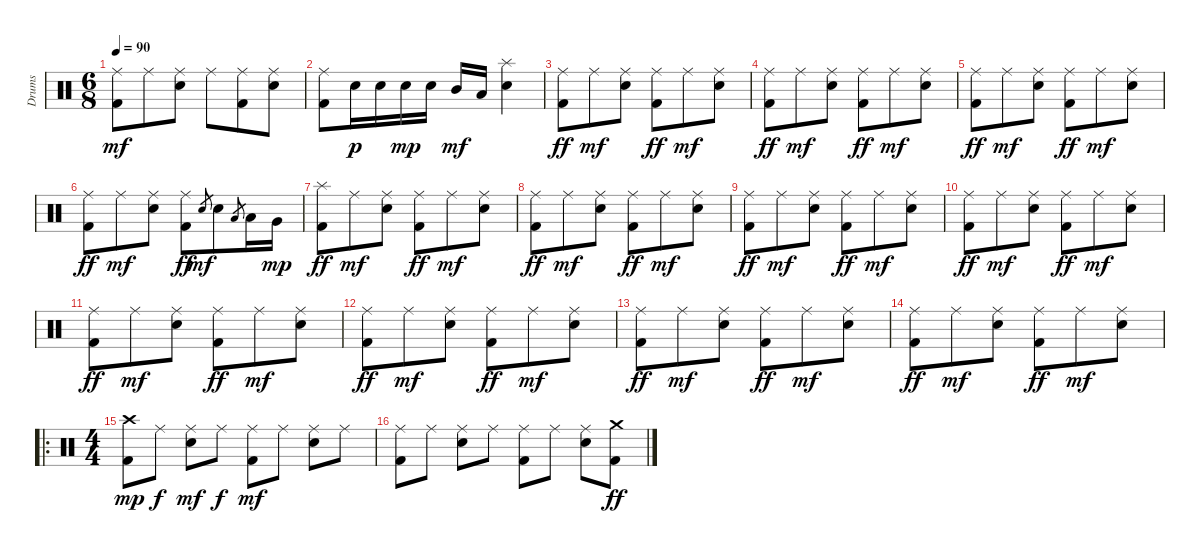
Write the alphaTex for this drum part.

\track ("Drums" "Drums") {instrument percussion}
\staff {score}
\articulation defaults
\ts (6 8)
\tempo 90
\clef neutral
\ks c
("Ride (middle)" "Kick (hit) 2").8{dy mf} "Ride (middle)".8 ("Ride (middle)" "Electric Snare (hit)").8 "Ride (middle)".8 ("Ride (middle)" "Kick (hit) 2").8 ("Ride (middle)" "Electric Snare (hit)").8 |
("Ride (middle)" "Kick (hit) 2").8 "Electric Snare (hit)".16{dy p} "Electric Snare (hit)".16 "Electric Snare (hit)".16{dy mp} "Electric Snare (hit)".16 "Mid Tom (hit)".16{dy mf} "Low Tom (hit)".16 ("Splash (hit)" "Electric Snare (hit)").4 |
("Ride (middle)" "Kick (hit) 2").8{dy ff} "Ride (middle)".8{dy mf} ("Ride (middle)" "Electric Snare (hit)").8 ("Ride (middle)" "Kick (hit) 2").8{dy ff} "Ride (middle)".8{dy mf} ("Ride (middle)" "Electric Snare (hit)").8 |
("Ride (middle)" "Kick (hit) 2").8{dy ff} "Ride (middle)".8{dy mf} ("Ride (middle)" "Electric Snare (hit)").8 ("Ride (middle)" "Kick (hit) 2").8{dy ff} "Ride (middle)".8{dy mf} ("Ride (middle)" "Electric Snare (hit)").8 |
("Ride (middle)" "Kick (hit) 2").8{dy ff} "Ride (middle)".8{dy mf} ("Ride (middle)" "Electric Snare (hit)").8 ("Ride (middle)" "Kick (hit) 2").8{dy ff} "Ride (middle)".8{dy mf} ("Ride (middle)" "Electric Snare (hit)").8 |
("Ride (middle)" "Kick (hit) 2").8{dy ff} "Ride (middle)".8{dy mf} ("Ride (middle)" "Electric Snare (hit)").8 ("Ride (middle)" "Kick (hit) 2").8{dy ff} "Electric Snare (hit)".8{gr dy mf} "Electric Snare (hit)".8 "Low Tom (hit)".8{gr} "Low Tom (hit)".16 "Very Low Tom (hit)".16{dy mp} |
("Splash (hit)" "Kick (hit) 2").8{dy ff} "Ride (middle)".8{dy mf} ("Ride (middle)" "Electric Snare (hit)").8 ("Ride (middle)" "Kick (hit) 2").8{dy ff} "Ride (middle)".8{dy mf} ("Ride (middle)" "Electric Snare (hit)").8 |
("Ride (middle)" "Kick (hit) 2").8{dy ff} "Ride (middle)".8{dy mf} ("Ride (middle)" "Electric Snare (hit)").8 ("Ride (middle)" "Kick (hit) 2").8{dy ff} "Ride (middle)".8{dy mf} ("Ride (middle)" "Electric Snare (hit)").8 |
("Ride (middle)" "Kick (hit) 2").8{dy ff} "Ride (middle)".8{dy mf} ("Ride (middle)" "Electric Snare (hit)").8 ("Ride (middle)" "Kick (hit) 2").8{dy ff} "Ride (middle)".8{dy mf} ("Ride (middle)" "Electric Snare (hit)").8 |
("Ride (middle)" "Kick (hit) 2").8{dy ff} "Ride (middle)".8{dy mf} ("Ride (middle)" "Electric Snare (hit)").8 ("Ride (middle)" "Kick (hit) 2").8{dy ff} "Ride (middle)".8{dy mf} ("Ride (middle)" "Electric Snare (hit)").8 |
("Ride (middle)" "Kick (hit) 2").8{dy ff} "Ride (middle)".8{dy mf} ("Ride (middle)" "Electric Snare (hit)").8 ("Ride (middle)" "Kick (hit) 2").8{dy ff} "Ride (middle)".8{dy mf} ("Ride (middle)" "Electric Snare (hit)").8 |
("Ride (middle)" "Kick (hit) 2").8{dy ff} "Ride (middle)".8{dy mf} ("Ride (middle)" "Electric Snare (hit)").8 ("Ride (middle)" "Kick (hit) 2").8{dy ff} "Ride (middle)".8{dy mf} ("Ride (middle)" "Electric Snare (hit)").8 |
("Ride (middle)" "Kick (hit) 2").8{dy ff} "Ride (middle)".8{dy mf} ("Ride (middle)" "Electric Snare (hit)").8 ("Ride (middle)" "Kick (hit) 2").8{dy ff} "Ride (middle)".8{dy mf} ("Ride (middle)" "Electric Snare (hit)").8 |
("Ride (middle)" "Kick (hit) 2").8{dy ff} "Ride (middle)".8{dy mf} ("Ride (middle)" "Electric Snare (hit)").8 ("Ride (middle)" "Kick (hit) 2").8{dy ff} "Ride (middle)".8{dy mf} ("Ride (middle)" "Electric Snare (hit)").8 |
\ro
\ts (4 4)
("Crash high (hit)" "Kick (hit) 2").8{dy mp} "Ride (middle)".8{dy f} ("Ride (middle)" "Electric Snare (hit)").8{dy mf} "Ride (middle)".8{dy f} ("Ride (middle)" "Kick (hit) 2").8{dy mf} "Ride (middle)".8 ("Ride (middle)" "Electric Snare (hit)").8 "Ride (middle)".8 |
("Ride (middle)" "Kick (hit) 2").8 "Ride (middle)".8 ("Ride (middle)" "Electric Snare (hit)").8 "Ride (middle)".8 ("Ride (middle)" "Kick (hit) 2").8 "Ride (middle)".8 ("Ride (middle)" "Electric Snare (hit)").8 ("Crash medium (hit)" "Kick (hit) 2").8{dy ff}
